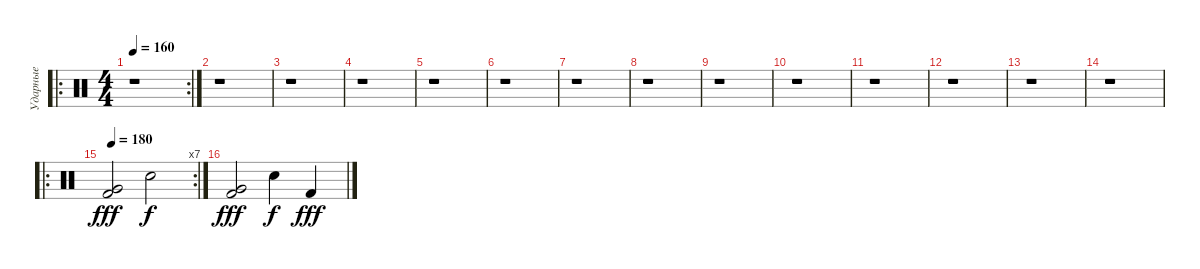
\track ("Ударные" "Ударные") {instrument percussion}
\staff
\articulation defaults
\ro
\rc 2
\ts (4 4)
\tempo 160
\tempo 91
\tempo 160
\clef neutral
\ks c
r.1{dy fff} |
r.1 |
r.1 |
r.1 |
r.1 |
r.1 |
r.1 |
r.1 |
r.1 |
r.1 |
r.1 |
r.1 |
r.1 |
r.1 |
\ro
\rc 7
\tempo 180
("Kick (hit) 2" "Very Low Tom (hit)").2 "Snare (hit) 2".2{dy f} |
("Kick (hit) 2" "Very Low Tom (hit)").2{dy fff} "Snare (hit) 2".4{dy f} "Kick (hit) 2".4{dy fff}
